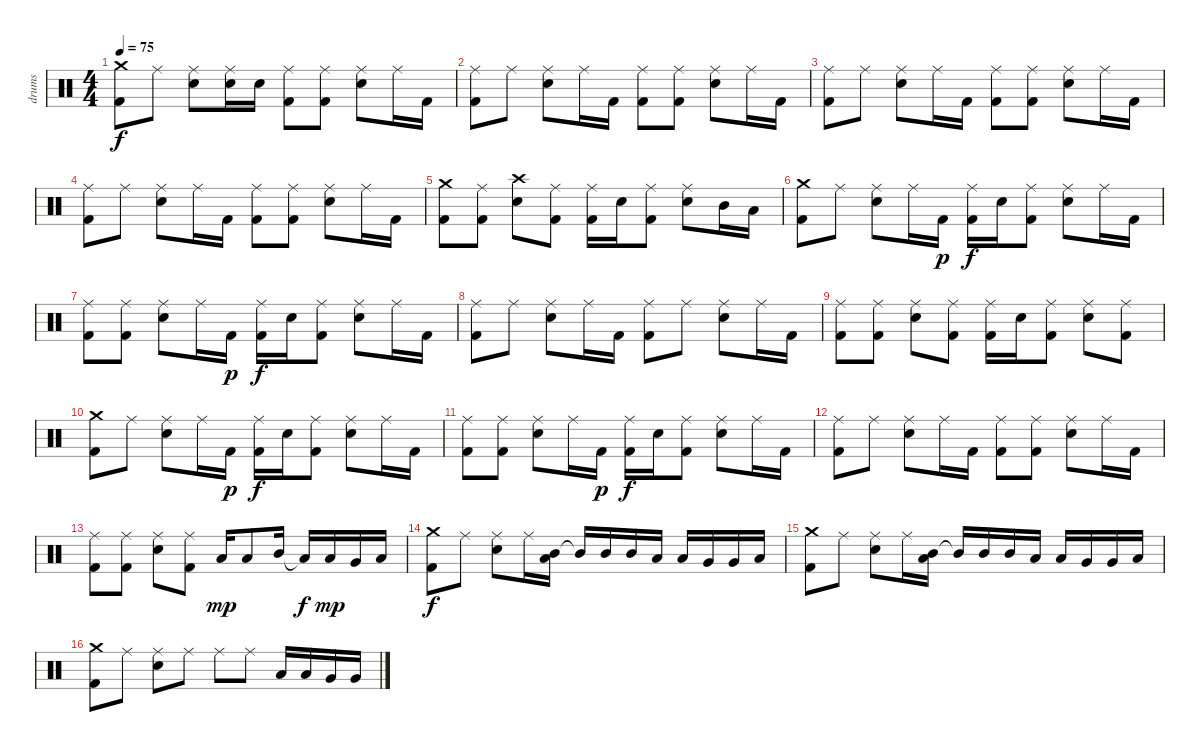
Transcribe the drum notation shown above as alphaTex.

\track ("drums" "drums") {instrument percussion}
\staff {score}
\articulation defaults
\ts (4 4)
\tempo 75
\clef neutral
\ks c
("Crash medium (hit)" "Kick (hit) 2").8{dy f} "Ride (middle)".8 ("Ride (middle)" "Snare (hit) 2").8 ("Ride (middle)" "Snare (hit) 2").16 "Snare (hit) 2".16 ("Ride (middle)" "Kick (hit) 2").8 ("Ride (middle)" "Kick (hit) 2").8 ("Ride (middle)" "Snare (hit) 2").8 "Ride (middle)".16 "Kick (hit) 2".16 |
("Ride (middle)" "Kick (hit) 2").8 "Ride (middle)".8 ("Ride (middle)" "Snare (hit) 2").8 "Ride (middle)".16 "Kick (hit) 2".16 ("Ride (middle)" "Kick (hit) 2").8 ("Ride (middle)" "Kick (hit) 2").8 ("Ride (middle)" "Snare (hit) 2").8 "Ride (middle)".16 "Kick (hit) 2".16 |
("Ride (middle)" "Kick (hit) 2").8 "Ride (middle)".8 ("Ride (middle)" "Snare (hit) 2").8 "Ride (middle)".16 "Kick (hit) 2".16 ("Ride (middle)" "Kick (hit) 2").8 ("Ride (middle)" "Kick (hit) 2").8 ("Ride (middle)" "Snare (hit) 2").8 "Ride (middle)".16 "Kick (hit) 2".16 |
("Ride (middle)" "Kick (hit) 2").8 "Ride (middle)".8 ("Ride (middle)" "Snare (hit) 2").8 "Ride (middle)".16 "Kick (hit) 2".16 ("Ride (middle)" "Kick (hit) 2").8 ("Ride (middle)" "Kick (hit) 2").8 ("Ride (middle)" "Snare (hit) 2").8 "Ride (middle)".16 "Kick (hit) 2".16 |
("Crash medium (hit)" "Kick (hit) 2").8 ("Ride (middle)" "Kick (hit) 2").8 ("Crash high (hit)" "Snare (hit) 2").8 ("Ride (middle)" "Kick (hit) 2").8 ("Ride (middle)" "Kick (hit) 2").16 "Snare (hit) 2".16 ("Ride (middle)" "Kick (hit) 2").8 ("Ride (middle)" "Snare (hit) 2").8 "Mid Tom (hit)".16 "Low Tom (hit)".16 |
("Crash medium (hit)" "Kick (hit) 2").8 "Ride (middle)".8 ("Ride (middle)" "Snare (hit) 2").8 "Ride (middle)".16 "Kick (hit) 2".16{dy p} ("Ride (middle)" "Kick (hit) 2").16{dy f} "Snare (hit) 2".16 ("Ride (middle)" "Kick (hit) 2").8 ("Ride (middle)" "Snare (hit) 2").8 "Ride (middle)".16 "Kick (hit) 2".16 |
("Ride (middle)" "Kick (hit) 2").8 ("Ride (middle)" "Kick (hit) 2").8 ("Ride (middle)" "Snare (hit) 2").8 "Ride (middle)".16 "Kick (hit) 2".16{dy p} ("Ride (middle)" "Kick (hit) 2").16{dy f} "Snare (hit) 2".16 ("Ride (middle)" "Kick (hit) 2").8 ("Ride (middle)" "Snare (hit) 2").8 "Ride (middle)".16 "Kick (hit) 2".16 |
("Ride (middle)" "Kick (hit) 2").8 "Ride (middle)".8 ("Ride (middle)" "Snare (hit) 2").8 "Ride (middle)".16 "Kick (hit) 2".16 ("Ride (middle)" "Kick (hit) 2").8 "Ride (middle)".8 ("Ride (middle)" "Snare (hit) 2").8 "Ride (middle)".16 "Kick (hit) 2".16 |
("Ride (middle)" "Kick (hit) 2").8 ("Ride (middle)" "Kick (hit) 2").8 ("Ride (middle)" "Snare (hit) 2").8 ("Ride (middle)" "Kick (hit) 2").8 ("Ride (middle)" "Kick (hit) 2").16 "Snare (hit) 2".16 ("Ride (middle)" "Kick (hit) 2").8 ("Ride (middle)" "Snare (hit) 2").8 ("Ride (middle)" "Kick (hit) 2").8 |
("Crash medium (hit)" "Kick (hit) 2").8 "Ride (middle)".8 ("Ride (middle)" "Snare (hit) 2").8 "Ride (middle)".16 "Kick (hit) 2".16{dy p} ("Ride (middle)" "Kick (hit) 2").16{dy f} "Snare (hit) 2".16 ("Ride (middle)" "Kick (hit) 2").8 ("Ride (middle)" "Snare (hit) 2").8 "Ride (middle)".16 "Kick (hit) 2".16 |
("Ride (middle)" "Kick (hit) 2").8 ("Ride (middle)" "Kick (hit) 2").8 ("Ride (middle)" "Snare (hit) 2").8 "Ride (middle)".16 "Kick (hit) 2".16{dy p} ("Ride (middle)" "Kick (hit) 2").16{dy f} "Snare (hit) 2".16 ("Ride (middle)" "Kick (hit) 2").8 ("Ride (middle)" "Snare (hit) 2").8 "Ride (middle)".16 "Kick (hit) 2".16 |
("Ride (middle)" "Kick (hit) 2").8 "Ride (middle)".8 ("Ride (middle)" "Snare (hit) 2").8 "Ride (middle)".16 "Kick (hit) 2".16 ("Ride (middle)" "Kick (hit) 2").8 ("Ride (middle)" "Kick (hit) 2").8 ("Ride (middle)" "Snare (hit) 2").8 "Ride (middle)".16 "Kick (hit) 2".16 |
("Ride (middle)" "Kick (hit) 2").8 ("Ride (middle)" "Kick (hit) 2").8 ("Ride (middle)" "Snare (hit) 2").8 ("Ride (middle)" "Kick (hit) 2").8 "Low Tom (hit)".16{dy mp} "Low Tom (hit)".8 "Mid Tom (hit)".16 "Low Tom (hit)"{t}.16{dy f} "Low Tom (hit)".16{dy mp} "Very Low Tom (hit)".16 "Low Floor Tom (hit)".16 |
("Crash medium (hit)" "Kick (hit) 2").8{dy f} "Ride (middle)".8 ("Ride (middle)" "Snare (hit) 2").8 "Ride (middle)".16 ("Mid Tom (hit)" "Low Tom (hit)").16 "Mid Tom (hit)"{t}.16 "Mid Tom (hit)".16 "Mid Tom (hit)".16 "Low Tom (hit)".16 "Low Tom (hit)".16 "Very Low Tom (hit)".16 "Very Low Tom (hit)".16 "Low Floor Tom (hit)".16 |
("Crash medium (hit)" "Kick (hit) 2").8 "Ride (middle)".8 ("Ride (middle)" "Snare (hit) 2").8 "Ride (middle)".16 ("Mid Tom (hit)" "Low Tom (hit)").16 "Mid Tom (hit)"{t}.16 "Mid Tom (hit)".16 "Mid Tom (hit)".16 "Low Tom (hit)".16 "Low Tom (hit)".16 "Very Low Tom (hit)".16 "Very Low Tom (hit)".16 "Low Floor Tom (hit)".16 |
("Crash medium (hit)" "Kick (hit) 2").8 "Ride (middle)".8 ("Ride (middle)" "Snare (hit) 2").8 "Ride (middle)".8 "Ride (middle)".8 "Ride (middle)".8 "Low Tom (hit)".16 "Low Tom (hit)".16 "Very Low Tom (hit)".16 "Very Low Tom (hit)".16
